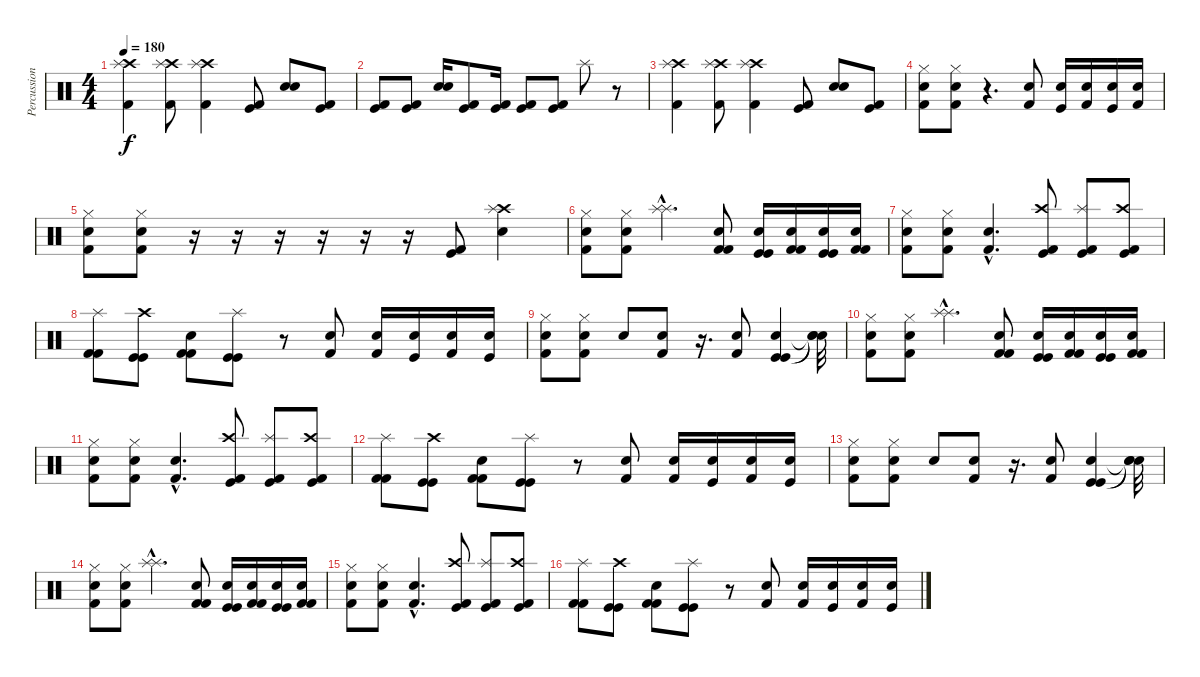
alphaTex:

\track ("Percussion" "Percussion") {instrument percussion}
\staff {score}
\articulation defaults
\ts (4 4)
\tempo 180
\clef neutral
\ks c
("Kick (hit) 2" "Crash high (hit)" "Splash (hit)").4{dy f} ("Kick (hit) 2" "Crash high (hit)" "Splash (hit)").8 ("Crash high (hit)" "Splash (hit)" "Kick (hit) 2").4 ("Kick (hit)" "Kick (hit) 2").8 ("Electric Snare (hit)" "Electric Snare (hit)").8 ("Kick (hit)" "Kick (hit) 2").8 |
("Kick (hit)" "Kick (hit) 2").8 ("Kick (hit)" "Kick (hit) 2").8 ("Electric Snare (hit)" "Electric Snare (hit)").16 ("Kick (hit)" "Kick (hit) 2").8 ("Kick (hit)" "Kick (hit) 2").16 ("Kick (hit)" "Kick (hit) 2").8 ("Kick (hit)" "Kick (hit) 2").8 "Splash (hit)".8 r.8 |
("Kick (hit) 2" "Crash high (hit)" "Splash (hit)").4 ("Kick (hit) 2" "Crash high (hit)" "Splash (hit)").8 ("Crash high (hit)" "Splash (hit)" "Kick (hit) 2").4 ("Kick (hit)" "Kick (hit) 2").8 ("Electric Snare (hit)" "Electric Snare (hit)").8 ("Kick (hit)" "Kick (hit) 2").8 |
("Hi-Hat (closed)" "Electric Snare (hit)" "Kick (hit) 2").8 ("Hi-Hat (closed)" "Electric Snare (hit)" "Kick (hit) 2").8 r.4{d} ("Electric Snare (hit)" "Kick (hit) 2").8 ("Electric Snare (hit)" "Kick (hit)").16 ("Electric Snare (hit)" "Kick (hit) 2").16 ("Electric Snare (hit)" "Kick (hit)").16 ("Electric Snare (hit)" "Kick (hit) 2").16 |
("Hi-Hat (closed)" "Electric Snare (hit)" "Kick (hit) 2").8 ("Hi-Hat (closed)" "Electric Snare (hit)" "Kick (hit) 2").8 r.16 r.16 r.16 r.16 r.16 r.16 ("Kick (hit)" "Kick (hit) 2").8 ("Electric Snare (hit)" "Crash high (hit)" "Splash (hit)").4 |
("Hi-Hat (closed)" "Electric Snare (hit)" "Kick (hit) 2").8 ("Hi-Hat (closed)" "Electric Snare (hit)" "Kick (hit) 2").8 ("Splash (hit)"{hac} "Splash (hit)"{hac}).4{d} ("Kick (hit) 2" "Electric Snare (hit)" "Kick (hit) 2").8 ("Kick (hit)" "Electric Snare (hit)" "Kick (hit)").16 ("Kick (hit) 2" "Electric Snare (hit)" "Kick (hit) 2").16 ("Kick (hit)" "Electric Snare (hit)" "Kick (hit)").16 ("Kick (hit) 2" "Electric Snare (hit)" "Kick (hit) 2").16 |
("Hi-Hat (closed)" "Electric Snare (hit)" "Kick (hit) 2").8 ("Hi-Hat (closed)" "Electric Snare (hit)" "Kick (hit) 2").8 ("Electric Snare (hit)"{hac} "Kick (hit) 2"{hac}).4{d} ("Crash high (hit)" "Kick (hit)" "Kick (hit) 2").8 ("Splash (hit)" "Kick (hit)" "Kick (hit) 2").8 ("Crash high (hit)" "Kick (hit)" "Kick (hit) 2").8 |
("Splash (hit)" "Kick (hit) 2" "Kick (hit) 2").8 ("Crash high (hit)" "Kick (hit)" "Kick (hit)").8 ("Electric Snare (hit)" "Kick (hit) 2" "Kick (hit) 2").8 ("Splash (hit)" "Kick (hit)" "Kick (hit)").8 r.8 ("Electric Snare (hit)" "Kick (hit) 2").8 ("Electric Snare (hit)" "Kick (hit) 2").16 ("Electric Snare (hit)" "Kick (hit)").16 ("Electric Snare (hit)" "Kick (hit) 2").16 ("Electric Snare (hit)" "Kick (hit)").16 |
("Hi-Hat (closed)" "Electric Snare (hit)" "Kick (hit) 2").8 ("Hi-Hat (closed)" "Electric Snare (hit)" "Kick (hit) 2").8 "Electric Snare (hit)".8 ("Electric Snare (hit)" "Kick (hit) 2").8 r.16{d} ("Electric Snare (hit)" "Kick (hit) 2").8 ("Kick (hit)" "Electric Snare (hit)" "Kick (hit)").4 ("Snare (hit)"{t} "Snare (hit)"{t} "Snare (hit)"{t}).32 |
("Hi-Hat (closed)" "Electric Snare (hit)" "Kick (hit) 2").8 ("Hi-Hat (closed)" "Electric Snare (hit)" "Kick (hit) 2").8 ("Splash (hit)"{hac} "Splash (hit)"{hac}).4{d} ("Kick (hit) 2" "Electric Snare (hit)" "Kick (hit) 2").8 ("Kick (hit)" "Electric Snare (hit)" "Kick (hit)").16 ("Kick (hit) 2" "Electric Snare (hit)" "Kick (hit) 2").16 ("Kick (hit)" "Electric Snare (hit)" "Kick (hit)").16 ("Kick (hit) 2" "Electric Snare (hit)" "Kick (hit) 2").16 |
("Hi-Hat (closed)" "Electric Snare (hit)" "Kick (hit) 2").8 ("Hi-Hat (closed)" "Electric Snare (hit)" "Kick (hit) 2").8 ("Electric Snare (hit)"{hac} "Kick (hit) 2"{hac}).4{d} ("Crash high (hit)" "Kick (hit)" "Kick (hit) 2").8 ("Splash (hit)" "Kick (hit)" "Kick (hit) 2").8 ("Crash high (hit)" "Kick (hit)" "Kick (hit) 2").8 |
("Splash (hit)" "Kick (hit) 2" "Kick (hit) 2").8 ("Crash high (hit)" "Kick (hit)" "Kick (hit)").8 ("Electric Snare (hit)" "Kick (hit) 2" "Kick (hit) 2").8 ("Splash (hit)" "Kick (hit)" "Kick (hit)").8 r.8 ("Electric Snare (hit)" "Kick (hit) 2").8 ("Electric Snare (hit)" "Kick (hit) 2").16 ("Electric Snare (hit)" "Kick (hit)").16 ("Electric Snare (hit)" "Kick (hit) 2").16 ("Electric Snare (hit)" "Kick (hit)").16 |
("Hi-Hat (closed)" "Electric Snare (hit)" "Kick (hit) 2").8 ("Hi-Hat (closed)" "Electric Snare (hit)" "Kick (hit) 2").8 "Electric Snare (hit)".8 ("Electric Snare (hit)" "Kick (hit) 2").8 r.16{d} ("Electric Snare (hit)" "Kick (hit) 2").8 ("Kick (hit)" "Electric Snare (hit)" "Kick (hit)").4 ("Snare (hit)"{t} "Snare (hit)"{t} "Snare (hit)"{t}).32 |
("Hi-Hat (closed)" "Electric Snare (hit)" "Kick (hit) 2").8 ("Hi-Hat (closed)" "Electric Snare (hit)" "Kick (hit) 2").8 ("Splash (hit)"{hac} "Splash (hit)"{hac}).4{d} ("Kick (hit) 2" "Electric Snare (hit)" "Kick (hit) 2").8 ("Kick (hit)" "Electric Snare (hit)" "Kick (hit)").16 ("Kick (hit) 2" "Electric Snare (hit)" "Kick (hit) 2").16 ("Kick (hit)" "Electric Snare (hit)" "Kick (hit)").16 ("Kick (hit) 2" "Electric Snare (hit)" "Kick (hit) 2").16 |
("Hi-Hat (closed)" "Electric Snare (hit)" "Kick (hit) 2").8 ("Hi-Hat (closed)" "Electric Snare (hit)" "Kick (hit) 2").8 ("Electric Snare (hit)"{hac} "Kick (hit) 2"{hac}).4{d} ("Crash high (hit)" "Kick (hit)" "Kick (hit) 2").8 ("Splash (hit)" "Kick (hit)" "Kick (hit) 2").8 ("Crash high (hit)" "Kick (hit)" "Kick (hit) 2").8 |
("Splash (hit)" "Kick (hit) 2" "Kick (hit) 2").8 ("Crash high (hit)" "Kick (hit)" "Kick (hit)").8 ("Electric Snare (hit)" "Kick (hit) 2" "Kick (hit) 2").8 ("Splash (hit)" "Kick (hit)" "Kick (hit)").8 r.8 ("Electric Snare (hit)" "Kick (hit) 2").8 ("Electric Snare (hit)" "Kick (hit) 2").16 ("Electric Snare (hit)" "Kick (hit)").16 ("Electric Snare (hit)" "Kick (hit) 2").16 ("Electric Snare (hit)" "Kick (hit)").16
